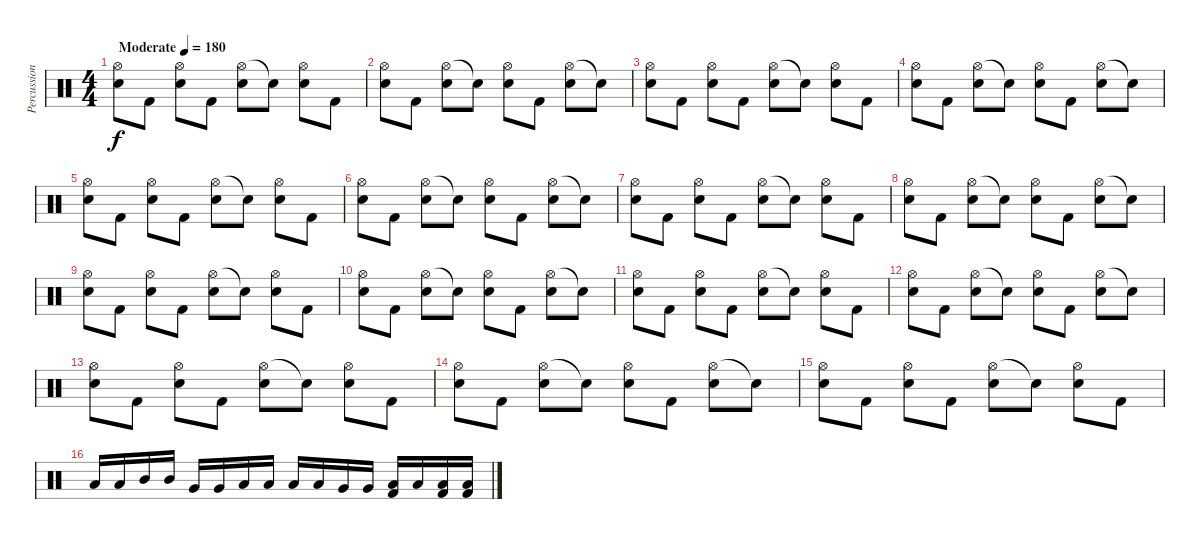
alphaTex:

\track ("Percussion" "Percussion") {instrument percussion}
\staff {score}
\articulation defaults
\ts (4 4)
\tempo (180 "Moderate")
\clef neutral
\ks c
("Hi-Hat (open)" "Electric Snare (hit)").8{dy f} "Kick (hit) 2".8 ("Hi-Hat (open)" "Electric Snare (hit)").8 "Kick (hit) 2".8 ("Hi-Hat (open)" "Electric Snare (hit)").8 "Snare (hit)"{t}.8 ("Hi-Hat (open)" "Electric Snare (hit)").8 "Kick (hit) 2".8 |
("Hi-Hat (open)" "Electric Snare (hit)").8 "Kick (hit) 2".8 ("Hi-Hat (open)" "Electric Snare (hit)").8 "Snare (hit)"{t}.8 ("Hi-Hat (open)" "Electric Snare (hit)").8 "Kick (hit) 2".8 ("Hi-Hat (open)" "Electric Snare (hit)").8 "Snare (hit)"{t}.8 |
("Hi-Hat (open)" "Electric Snare (hit)").8 "Kick (hit) 2".8 ("Hi-Hat (open)" "Electric Snare (hit)").8 "Kick (hit) 2".8 ("Hi-Hat (open)" "Electric Snare (hit)").8 "Snare (hit)"{t}.8 ("Hi-Hat (open)" "Electric Snare (hit)").8 "Kick (hit) 2".8 |
("Hi-Hat (open)" "Electric Snare (hit)").8 "Kick (hit) 2".8 ("Hi-Hat (open)" "Electric Snare (hit)").8 "Snare (hit)"{t}.8 ("Hi-Hat (open)" "Electric Snare (hit)").8 "Kick (hit) 2".8 ("Hi-Hat (open)" "Electric Snare (hit)").8 "Snare (hit)"{t}.8 |
("Hi-Hat (open)" "Electric Snare (hit)").8 "Kick (hit) 2".8 ("Hi-Hat (open)" "Electric Snare (hit)").8 "Kick (hit) 2".8 ("Hi-Hat (open)" "Electric Snare (hit)").8 "Snare (hit)"{t}.8 ("Hi-Hat (open)" "Electric Snare (hit)").8 "Kick (hit) 2".8 |
("Hi-Hat (open)" "Electric Snare (hit)").8 "Kick (hit) 2".8 ("Hi-Hat (open)" "Electric Snare (hit)").8 "Snare (hit)"{t}.8 ("Hi-Hat (open)" "Electric Snare (hit)").8 "Kick (hit) 2".8 ("Hi-Hat (open)" "Electric Snare (hit)").8 "Snare (hit)"{t}.8 |
("Hi-Hat (open)" "Electric Snare (hit)").8 "Kick (hit) 2".8 ("Hi-Hat (open)" "Electric Snare (hit)").8 "Kick (hit) 2".8 ("Hi-Hat (open)" "Electric Snare (hit)").8 "Snare (hit)"{t}.8 ("Hi-Hat (open)" "Electric Snare (hit)").8 "Kick (hit) 2".8 |
("Hi-Hat (open)" "Electric Snare (hit)").8 "Kick (hit) 2".8 ("Hi-Hat (open)" "Electric Snare (hit)").8 "Snare (hit)"{t}.8 ("Hi-Hat (open)" "Electric Snare (hit)").8 "Kick (hit) 2".8 ("Hi-Hat (open)" "Electric Snare (hit)").8 "Snare (hit)"{t}.8 |
("Hi-Hat (open)" "Electric Snare (hit)").8 "Kick (hit) 2".8 ("Hi-Hat (open)" "Electric Snare (hit)").8 "Kick (hit) 2".8 ("Hi-Hat (open)" "Electric Snare (hit)").8 "Snare (hit)"{t}.8 ("Hi-Hat (open)" "Electric Snare (hit)").8 "Kick (hit) 2".8 |
("Hi-Hat (open)" "Electric Snare (hit)").8 "Kick (hit) 2".8 ("Hi-Hat (open)" "Electric Snare (hit)").8 "Snare (hit)"{t}.8 ("Hi-Hat (open)" "Electric Snare (hit)").8 "Kick (hit) 2".8 ("Hi-Hat (open)" "Electric Snare (hit)").8 "Snare (hit)"{t}.8 |
("Hi-Hat (open)" "Electric Snare (hit)").8 "Kick (hit) 2".8 ("Hi-Hat (open)" "Electric Snare (hit)").8 "Kick (hit) 2".8 ("Hi-Hat (open)" "Electric Snare (hit)").8 "Snare (hit)"{t}.8 ("Hi-Hat (open)" "Electric Snare (hit)").8 "Kick (hit) 2".8 |
("Hi-Hat (open)" "Electric Snare (hit)").8 "Kick (hit) 2".8 ("Hi-Hat (open)" "Electric Snare (hit)").8 "Snare (hit)"{t}.8 ("Hi-Hat (open)" "Electric Snare (hit)").8 "Kick (hit) 2".8 ("Hi-Hat (open)" "Electric Snare (hit)").8 "Snare (hit)"{t}.8 |
("Hi-Hat (open)" "Electric Snare (hit)").8 "Kick (hit) 2".8 ("Hi-Hat (open)" "Electric Snare (hit)").8 "Kick (hit) 2".8 ("Hi-Hat (open)" "Electric Snare (hit)").8 "Snare (hit)"{t}.8 ("Hi-Hat (open)" "Electric Snare (hit)").8 "Kick (hit) 2".8 |
("Hi-Hat (open)" "Electric Snare (hit)").8 "Kick (hit) 2".8 ("Hi-Hat (open)" "Electric Snare (hit)").8 "Snare (hit)"{t}.8 ("Hi-Hat (open)" "Electric Snare (hit)").8 "Kick (hit) 2".8 ("Hi-Hat (open)" "Electric Snare (hit)").8 "Snare (hit)"{t}.8 |
("Hi-Hat (open)" "Electric Snare (hit)").8 "Kick (hit) 2".8 ("Hi-Hat (open)" "Electric Snare (hit)").8 "Kick (hit) 2".8 ("Hi-Hat (open)" "Electric Snare (hit)").8 "Snare (hit)"{t}.8 ("Hi-Hat (open)" "Electric Snare (hit)").8 "Kick (hit) 2".8 |
"Low Tom (hit)".16 "Low Tom (hit)".16 "Mid Tom (hit)".16 "Mid Tom (hit)".16 "Very Low Tom (hit)".16 "Very Low Tom (hit)".16 "Low Tom (hit)".16 "Low Tom (hit)".16 "Low Floor Tom (hit)".16 "Low Floor Tom (hit)".16 "Very Low Tom (hit)".16 "Very Low Tom (hit)".16 ("Low Floor Tom (hit)" "Kick (hit) 2").16 "Low Floor Tom (hit)".16 ("Low Floor Tom (hit)" "Kick (hit) 2").16 ("Low Floor Tom (hit)" "Kick (hit) 2").16
